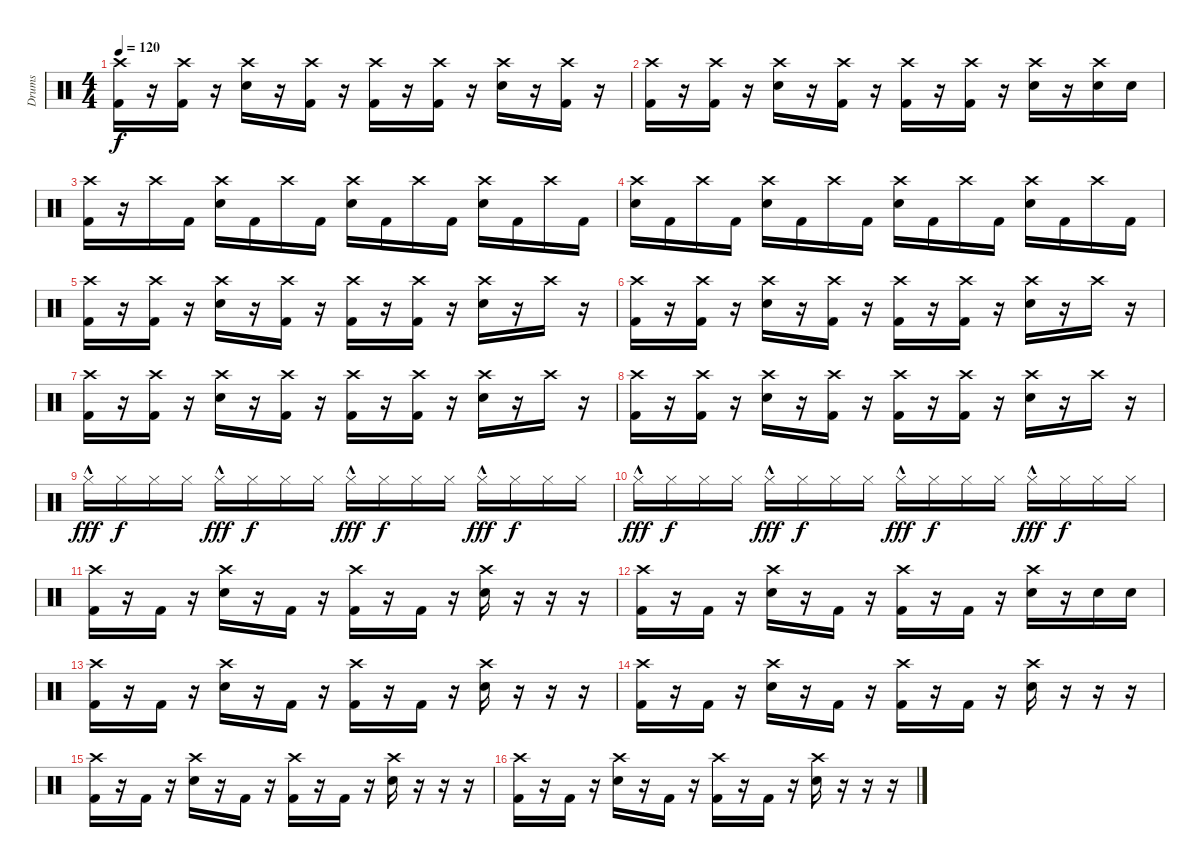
\track ("Drums" "Drums") {instrument percussion}
\staff {score}
\articulation defaults
\ts (4 4)
\tempo 120
\clef neutral
\ks c
("Crash high (hit)" "Kick (hit) 2").16{dy f} r.16 ("Crash high (hit)" "Kick (hit) 2").16 r.16 ("Crash high (hit)" "Electric Snare (hit)").16 r.16 ("Crash high (hit)" "Kick (hit) 2").16 r.16 ("Crash high (hit)" "Kick (hit) 2").16 r.16 ("Crash high (hit)" "Kick (hit) 2").16 r.16 ("Crash high (hit)" "Electric Snare (hit)").16 r.16 ("Crash high (hit)" "Kick (hit) 2").16 r.16 |
("Crash high (hit)" "Kick (hit) 2").16 r.16 ("Crash high (hit)" "Kick (hit) 2").16 r.16 ("Crash high (hit)" "Electric Snare (hit)").16 r.16 ("Crash high (hit)" "Kick (hit) 2").16 r.16 ("Crash high (hit)" "Kick (hit) 2").16 r.16 ("Crash high (hit)" "Kick (hit) 2").16 r.16 ("Crash high (hit)" "Electric Snare (hit)").16 r.16 ("Crash high (hit)" "Electric Snare (hit)").16 "Electric Snare (hit)".16 |
("Crash high (hit)" "Kick (hit) 2").16 r.16 "Crash high (hit)".16 "Kick (hit) 2".16 ("Crash high (hit)" "Electric Snare (hit)").16 "Kick (hit) 2".16 "Crash high (hit)".16 "Kick (hit) 2".16 ("Crash high (hit)" "Electric Snare (hit)").16 "Kick (hit) 2".16 "Crash high (hit)".16 "Kick (hit) 2".16 ("Crash high (hit)" "Electric Snare (hit)").16 "Kick (hit) 2".16 "Crash high (hit)".16 "Kick (hit) 2".16 |
("Crash high (hit)" "Electric Snare (hit)").16 "Kick (hit) 2".16 "Crash high (hit)".16 "Kick (hit) 2".16 ("Crash high (hit)" "Electric Snare (hit)").16 "Kick (hit) 2".16 "Crash high (hit)".16 "Kick (hit) 2".16 ("Crash high (hit)" "Electric Snare (hit)").16 "Kick (hit) 2".16 "Crash high (hit)".16 "Kick (hit) 2".16 ("Crash high (hit)" "Electric Snare (hit)").16 "Kick (hit) 2".16 "Crash high (hit)".16 "Kick (hit) 2".16 |
("Crash high (hit)" "Kick (hit) 2").16 r.16 ("Crash high (hit)" "Kick (hit) 2").16 r.16 ("Crash high (hit)" "Electric Snare (hit)").16 r.16 ("Crash high (hit)" "Kick (hit) 2").16 r.16 ("Crash high (hit)" "Kick (hit) 2").16 r.16 ("Crash high (hit)" "Kick (hit) 2").16 r.16 ("Crash high (hit)" "Electric Snare (hit)").16 r.16 "Crash high (hit)".16 r.16 |
("Crash high (hit)" "Kick (hit) 2").16 r.16 ("Crash high (hit)" "Kick (hit) 2").16 r.16 ("Crash high (hit)" "Electric Snare (hit)").16 r.16 ("Crash high (hit)" "Kick (hit) 2").16 r.16 ("Crash high (hit)" "Kick (hit) 2").16 r.16 ("Crash high (hit)" "Kick (hit) 2").16 r.16 ("Crash high (hit)" "Electric Snare (hit)").16 r.16 "Crash high (hit)".16 r.16 |
("Crash high (hit)" "Kick (hit) 2").16 r.16 ("Crash high (hit)" "Kick (hit) 2").16 r.16 ("Crash high (hit)" "Electric Snare (hit)").16 r.16 ("Crash high (hit)" "Kick (hit) 2").16 r.16 ("Crash high (hit)" "Kick (hit) 2").16 r.16 ("Crash high (hit)" "Kick (hit) 2").16 r.16 ("Crash high (hit)" "Electric Snare (hit)").16 r.16 "Crash high (hit)".16 r.16 |
("Crash high (hit)" "Kick (hit) 2").16 r.16 ("Crash high (hit)" "Kick (hit) 2").16 r.16 ("Crash high (hit)" "Electric Snare (hit)").16 r.16 ("Crash high (hit)" "Kick (hit) 2").16 r.16 ("Crash high (hit)" "Kick (hit) 2").16 r.16 ("Crash high (hit)" "Kick (hit) 2").16 r.16 ("Crash high (hit)" "Electric Snare (hit)").16 r.16 "Crash high (hit)".16 r.16 |
"Hi-Hat (closed)"{hac}.16{dy fff} "Hi-Hat (closed)".16{dy f} "Hi-Hat (closed)".16 "Hi-Hat (closed)".16 "Hi-Hat (closed)"{hac}.16{dy fff} "Hi-Hat (closed)".16{dy f} "Hi-Hat (closed)".16 "Hi-Hat (closed)".16 "Hi-Hat (closed)"{hac}.16{dy fff} "Hi-Hat (closed)".16{dy f} "Hi-Hat (closed)".16 "Hi-Hat (closed)".16 "Hi-Hat (closed)"{hac}.16{dy fff} "Hi-Hat (closed)".16{dy f} "Hi-Hat (closed)".16 "Hi-Hat (closed)".16 |
"Hi-Hat (closed)"{hac}.16{dy fff} "Hi-Hat (closed)".16{dy f} "Hi-Hat (closed)".16 "Hi-Hat (closed)".16 "Hi-Hat (closed)"{hac}.16{dy fff} "Hi-Hat (closed)".16{dy f} "Hi-Hat (closed)".16 "Hi-Hat (closed)".16 "Hi-Hat (closed)"{hac}.16{dy fff} "Hi-Hat (closed)".16{dy f} "Hi-Hat (closed)".16 "Hi-Hat (closed)".16 "Hi-Hat (closed)"{hac}.16{dy fff} "Hi-Hat (closed)".16{dy f} "Hi-Hat (closed)".16 "Hi-Hat (closed)".16 |
("Crash high (hit)" "Kick (hit) 2").16 r.16 "Kick (hit) 2".16 r.16 ("Crash high (hit)" "Electric Snare (hit)").16 r.16 "Kick (hit) 2".16 r.16 ("Crash high (hit)" "Kick (hit) 2").16 r.16 "Kick (hit) 2".16 r.16 ("Crash high (hit)" "Electric Snare (hit)").16 r.16 r.16 r.16 |
("Crash high (hit)" "Kick (hit) 2").16 r.16 "Kick (hit) 2".16 r.16 ("Crash high (hit)" "Electric Snare (hit)").16 r.16 "Kick (hit) 2".16 r.16 ("Crash high (hit)" "Kick (hit) 2").16 r.16 "Kick (hit) 2".16 r.16 ("Crash high (hit)" "Electric Snare (hit)").16 r.16 "Electric Snare (hit)".16 "Electric Snare (hit)".16 |
("Crash high (hit)" "Kick (hit) 2").16 r.16 "Kick (hit) 2".16 r.16 ("Crash high (hit)" "Electric Snare (hit)").16 r.16 "Kick (hit) 2".16 r.16 ("Crash high (hit)" "Kick (hit) 2").16 r.16 "Kick (hit) 2".16 r.16 ("Crash high (hit)" "Electric Snare (hit)").16 r.16 r.16 r.16 |
("Crash high (hit)" "Kick (hit) 2").16 r.16 "Kick (hit) 2".16 r.16 ("Crash high (hit)" "Electric Snare (hit)").16 r.16 "Kick (hit) 2".16 r.16 ("Crash high (hit)" "Kick (hit) 2").16 r.16 "Kick (hit) 2".16 r.16 ("Crash high (hit)" "Electric Snare (hit)").16 r.16 r.16 r.16 |
("Crash high (hit)" "Kick (hit) 2").16 r.16 "Kick (hit) 2".16 r.16 ("Crash high (hit)" "Electric Snare (hit)").16 r.16 "Kick (hit) 2".16 r.16 ("Crash high (hit)" "Kick (hit) 2").16 r.16 "Kick (hit) 2".16 r.16 ("Crash high (hit)" "Electric Snare (hit)").16 r.16 r.16 r.16 |
("Crash high (hit)" "Kick (hit) 2").16 r.16 "Kick (hit) 2".16 r.16 ("Crash high (hit)" "Electric Snare (hit)").16 r.16 "Kick (hit) 2".16 r.16 ("Crash high (hit)" "Kick (hit) 2").16 r.16 "Kick (hit) 2".16 r.16 ("Crash high (hit)" "Electric Snare (hit)").16 r.16 r.16 r.16
